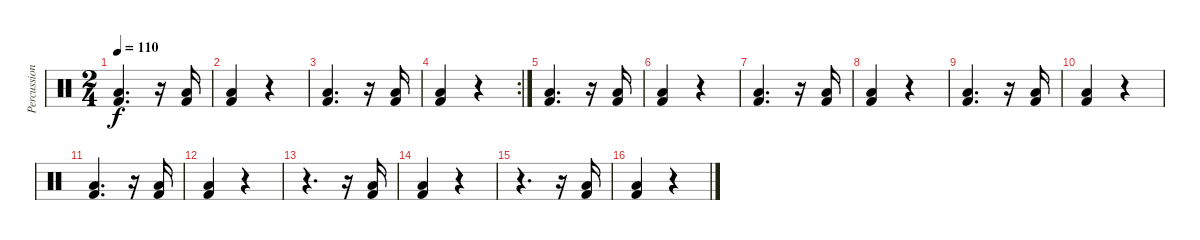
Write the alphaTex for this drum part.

\track ("Percussions" "Percussion") {instrument percussion}
\staff {score}
\articulation defaults
\ts (2 4)
\tempo 110
\clef neutral
\ks c
("Low Floor Tom (hit)" "Kick (hit) 2").4{d dy f} r.16 ("Low Floor Tom (hit)" "Kick (hit) 2").16 |
("Low Floor Tom (hit)" "Kick (hit) 2").4 r.4 |
("Low Floor Tom (hit)" "Kick (hit) 2").4{d} r.16 ("Low Floor Tom (hit)" "Kick (hit) 2").16 |
\rc 2
("Low Floor Tom (hit)" "Kick (hit) 2").4 r.4 |
("Low Floor Tom (hit)" "Kick (hit) 2").4{d} r.16 ("Low Floor Tom (hit)" "Kick (hit) 2").16 |
("Low Floor Tom (hit)" "Kick (hit) 2").4 r.4 |
("Low Floor Tom (hit)" "Kick (hit) 2").4{d} r.16 ("Low Floor Tom (hit)" "Kick (hit) 2").16 |
("Low Floor Tom (hit)" "Kick (hit) 2").4 r.4 |
("Low Floor Tom (hit)" "Kick (hit) 2").4{d} r.16 ("Low Floor Tom (hit)" "Kick (hit) 2").16 |
("Low Floor Tom (hit)" "Kick (hit) 2").4 r.4 |
("Low Floor Tom (hit)" "Kick (hit) 2").4{d} r.16 ("Low Floor Tom (hit)" "Kick (hit) 2").16 |
("Low Floor Tom (hit)" "Kick (hit) 2").4 r.4 |
r.4{d} r.16 ("Low Floor Tom (hit)" "Kick (hit) 2").16 |
("Low Floor Tom (hit)" "Kick (hit) 2").4 r.4 |
r.4{d} r.16 ("Low Floor Tom (hit)" "Kick (hit) 2").16 |
("Low Floor Tom (hit)" "Kick (hit) 2").4 r.4
